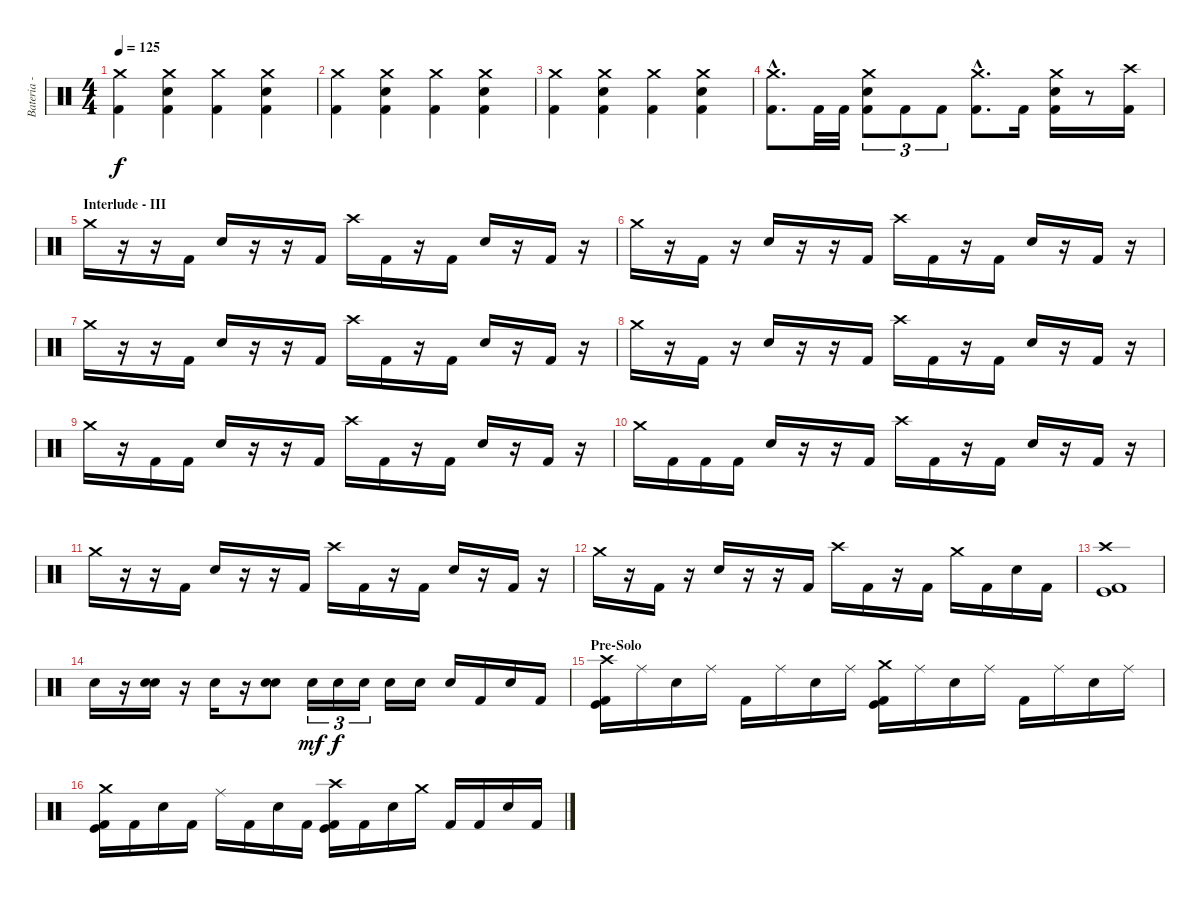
\track ("Bateria - Drums" "Bateria - ") {instrument percussion}
\staff {score}
\articulation defaults
\ts (4 4)
\tempo 125
\clef neutral
\ks c
("Crash medium (hit)" "Kick (hit) 2").4{dy f} ("Crash medium (hit)" "Electric Snare (hit)" "Kick (hit) 2").4 ("Crash medium (hit)" "Kick (hit) 2").4 ("Crash medium (hit)" "Electric Snare (hit)" "Kick (hit) 2").4 |
("Crash medium (hit)" "Kick (hit) 2").4 ("Crash medium (hit)" "Electric Snare (hit)" "Kick (hit) 2").4 ("Crash medium (hit)" "Kick (hit) 2").4 ("Crash medium (hit)" "Electric Snare (hit)" "Kick (hit) 2").4 |
("Crash medium (hit)" "Kick (hit) 2").4 ("Crash medium (hit)" "Electric Snare (hit)" "Kick (hit) 2").4 ("Crash medium (hit)" "Kick (hit) 2").4 ("Crash medium (hit)" "Electric Snare (hit)" "Kick (hit) 2").4 |
("Crash medium (hit)"{hac} "Kick (hit) 2"{hac}).8{d} "Kick (hit) 2".32 "Kick (hit) 2".32 ("Crash medium (hit)" "Electric Snare (hit)" "Kick (hit) 2").8{tu (3 2)} "Kick (hit) 2".8{tu (3 2)} "Kick (hit) 2".8{tu (3 2)} ("Crash medium (hit)"{hac} "Kick (hit) 2"{hac}).8{d} "Kick (hit) 2".16 ("Crash medium (hit)" "Electric Snare (hit)" "Kick (hit) 2").16 r.8 ("Crash high (hit)" "Kick (hit) 2").16 |
\section ("" "Interlude - III")
"Crash medium (hit)".16 r.16 r.16 "Kick (hit) 2".16 "Electric Snare (hit)".16 r.16 r.16 "Kick (hit) 2".16 "Crash high (hit)".16 "Kick (hit) 2".16 r.16 "Kick (hit) 2".16 "Electric Snare (hit)".16 r.16 "Kick (hit) 2".16 r.16 |
"Crash medium (hit)".16 r.16 "Kick (hit) 2".16 r.16 "Electric Snare (hit)".16 r.16 r.16 "Kick (hit) 2".16 "Crash high (hit)".16 "Kick (hit) 2".16 r.16 "Kick (hit) 2".16 "Electric Snare (hit)".16 r.16 "Kick (hit) 2".16 r.16 |
"Crash medium (hit)".16 r.16 r.16 "Kick (hit) 2".16 "Electric Snare (hit)".16 r.16 r.16 "Kick (hit) 2".16 "Crash high (hit)".16 "Kick (hit) 2".16 r.16 "Kick (hit) 2".16 "Electric Snare (hit)".16 r.16 "Kick (hit) 2".16 r.16 |
"Crash medium (hit)".16 r.16 "Kick (hit) 2".16 r.16 "Electric Snare (hit)".16 r.16 r.16 "Kick (hit) 2".16 "Crash high (hit)".16 "Kick (hit) 2".16 r.16 "Kick (hit) 2".16 "Electric Snare (hit)".16 r.16 "Kick (hit) 2".16 r.16 |
"Crash medium (hit)".16 r.16 "Kick (hit) 2".16 "Kick (hit) 2".16 "Electric Snare (hit)".16 r.16 r.16 "Kick (hit) 2".16 "Crash high (hit)".16 "Kick (hit) 2".16 r.16 "Kick (hit) 2".16 "Electric Snare (hit)".16 r.16 "Kick (hit) 2".16 r.16 |
"Crash medium (hit)".16 "Kick (hit) 2".16 "Kick (hit) 2".16 "Kick (hit) 2".16 "Electric Snare (hit)".16 r.16 r.16 "Kick (hit) 2".16 "Crash high (hit)".16 "Kick (hit) 2".16 r.16 "Kick (hit) 2".16 "Electric Snare (hit)".16 r.16 "Kick (hit) 2".16 r.16 |
"Crash medium (hit)".16 r.16 r.16 "Kick (hit) 2".16 "Electric Snare (hit)".16 r.16 r.16 "Kick (hit) 2".16 "Crash high (hit)".16 "Kick (hit) 2".16 r.16 "Kick (hit) 2".16 "Electric Snare (hit)".16 r.16 "Kick (hit) 2".16 r.16 |
"Crash medium (hit)".16 r.16 "Kick (hit) 2".16 r.16 "Electric Snare (hit)".16 r.16 r.16 "Kick (hit) 2".16 "Crash high (hit)".16 "Kick (hit) 2".16 r.16 "Kick (hit) 2".16 "Crash medium (hit)".16 "Kick (hit) 2".16 "Electric Snare (hit)".16 "Kick (hit) 2".16 |
("Crash high (hit)" "Kick (hit)" "Kick (hit) 2").1 |
"Electric Snare (hit)".16 r.16 ("Electric Snare (hit)" "Electric Snare (hit)").16 r.16 "Electric Snare (hit)".16 r.16 ("Electric Snare (hit)" "Electric Snare (hit)").8 "Electric Snare (hit)".16{tu (3 2) dy mf} "Electric Snare (hit)".16{tu (3 2) dy f} "Electric Snare (hit)".16{tu (3 2)} "Electric Snare (hit)".16 "Electric Snare (hit)".16 "Electric Snare (hit)".16 "Kick (hit) 2".16 "Electric Snare (hit)".16 "Kick (hit) 2".16 |
\section ("" "Pre-Solo")
("Crash high (hit)" "Kick (hit)" "Kick (hit) 2").16 "Ride (middle)".16 "Electric Snare (hit)".16 "Ride (middle)".16 "Kick (hit) 2".16 "Ride (middle)".16 "Electric Snare (hit)".16 "Ride (middle)".16 ("Crash medium (hit)" "Kick (hit)" "Kick (hit) 2").16 "Ride (middle)".16 "Electric Snare (hit)".16 "Ride (middle)".16 "Kick (hit) 2".16 "Ride (middle)".16 "Electric Snare (hit)".16 "Ride (middle)".16 |
("Crash medium (hit)" "Kick (hit)" "Kick (hit) 2").16 "Kick (hit) 2".16 "Electric Snare (hit)".16 "Kick (hit) 2".16 "Ride (middle)".16 "Kick (hit) 2".16 "Electric Snare (hit)".16 "Kick (hit) 2".16 ("Crash high (hit)" "Kick (hit)" "Kick (hit) 2").16 "Kick (hit) 2".16 "Electric Snare (hit)".16 "Crash medium (hit)".16 "Kick (hit) 2".16 "Kick (hit) 2".16 "Electric Snare (hit)".16 "Kick (hit) 2".16
